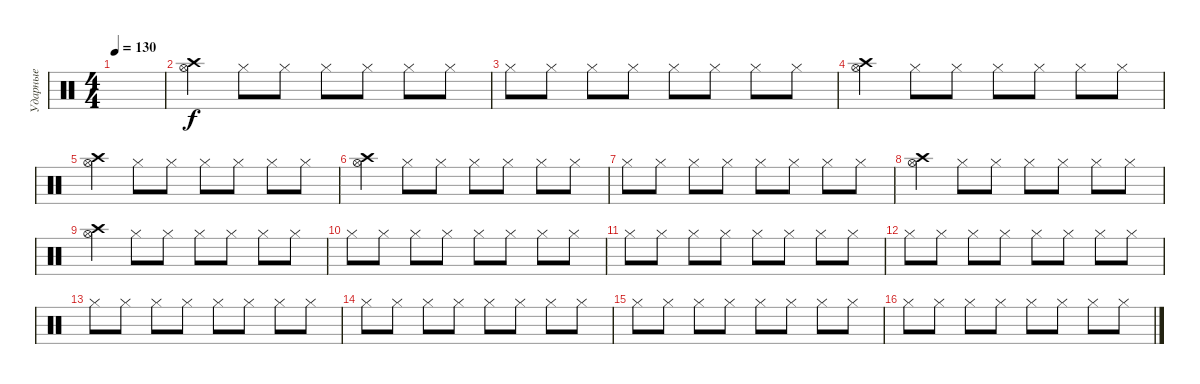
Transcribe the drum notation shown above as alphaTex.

\track ("Ударные" "Ударные") {instrument percussion}
\staff {score}
\articulation defaults
\ts (4 4)
\tempo 130
\clef neutral
\ks c
|
("Hi-Hat (open)" "Crash high (hit)").4 "Hi-Hat (closed)".8 "Hi-Hat (closed)".8 "Hi-Hat (closed)".8 "Hi-Hat (closed)".8 "Hi-Hat (closed)".8 "Hi-Hat (closed)".8 |
"Hi-Hat (closed)".8 "Hi-Hat (closed)".8 "Hi-Hat (closed)".8 "Hi-Hat (closed)".8 "Hi-Hat (closed)".8 "Hi-Hat (closed)".8 "Hi-Hat (closed)".8 "Hi-Hat (closed)".8 |
("Hi-Hat (open)" "Crash high (hit)").4 "Hi-Hat (closed)".8 "Hi-Hat (closed)".8 "Hi-Hat (closed)".8 "Hi-Hat (closed)".8 "Hi-Hat (closed)".8 "Hi-Hat (closed)".8 |
("Hi-Hat (open)" "Crash high (hit)").4 "Hi-Hat (closed)".8 "Hi-Hat (closed)".8 "Hi-Hat (closed)".8 "Hi-Hat (closed)".8 "Hi-Hat (closed)".8 "Hi-Hat (closed)".8 |
("Hi-Hat (open)" "Crash high (hit)").4 "Hi-Hat (closed)".8 "Hi-Hat (closed)".8 "Hi-Hat (closed)".8 "Hi-Hat (closed)".8 "Hi-Hat (closed)".8 "Hi-Hat (closed)".8 |
"Hi-Hat (closed)".8 "Hi-Hat (closed)".8 "Hi-Hat (closed)".8 "Hi-Hat (closed)".8 "Hi-Hat (closed)".8 "Hi-Hat (closed)".8 "Hi-Hat (closed)".8 "Hi-Hat (closed)".8 |
("Hi-Hat (open)" "Crash high (hit)").4 "Hi-Hat (closed)".8 "Hi-Hat (closed)".8 "Hi-Hat (closed)".8 "Hi-Hat (closed)".8 "Hi-Hat (closed)".8 "Hi-Hat (closed)".8 |
("Hi-Hat (open)" "Crash high (hit)").4 "Hi-Hat (closed)".8 "Hi-Hat (closed)".8 "Hi-Hat (closed)".8 "Hi-Hat (closed)".8 "Hi-Hat (closed)".8 "Hi-Hat (closed)".8 |
"Hi-Hat (closed)".8 "Hi-Hat (closed)".8 "Hi-Hat (closed)".8 "Hi-Hat (closed)".8 "Hi-Hat (closed)".8 "Hi-Hat (closed)".8 "Hi-Hat (closed)".8 "Hi-Hat (closed)".8 |
"Hi-Hat (closed)".8 "Hi-Hat (closed)".8 "Hi-Hat (closed)".8 "Hi-Hat (closed)".8 "Hi-Hat (closed)".8 "Hi-Hat (closed)".8 "Hi-Hat (closed)".8 "Hi-Hat (closed)".8 |
"Hi-Hat (closed)".8 "Hi-Hat (closed)".8 "Hi-Hat (closed)".8 "Hi-Hat (closed)".8 "Hi-Hat (closed)".8 "Hi-Hat (closed)".8 "Hi-Hat (closed)".8 "Hi-Hat (closed)".8 |
"Hi-Hat (closed)".8 "Hi-Hat (closed)".8 "Hi-Hat (closed)".8 "Hi-Hat (closed)".8 "Hi-Hat (closed)".8 "Hi-Hat (closed)".8 "Hi-Hat (closed)".8 "Hi-Hat (closed)".8 |
"Hi-Hat (closed)".8 "Hi-Hat (closed)".8 "Hi-Hat (closed)".8 "Hi-Hat (closed)".8 "Hi-Hat (closed)".8 "Hi-Hat (closed)".8 "Hi-Hat (closed)".8 "Hi-Hat (closed)".8 |
"Hi-Hat (closed)".8 "Hi-Hat (closed)".8 "Hi-Hat (closed)".8 "Hi-Hat (closed)".8 "Hi-Hat (closed)".8 "Hi-Hat (closed)".8 "Hi-Hat (closed)".8 "Hi-Hat (closed)".8 |
"Hi-Hat (closed)".8 "Hi-Hat (closed)".8 "Hi-Hat (closed)".8 "Hi-Hat (closed)".8 "Hi-Hat (closed)".8 "Hi-Hat (closed)".8 "Hi-Hat (closed)".8 "Hi-Hat (closed)".8
